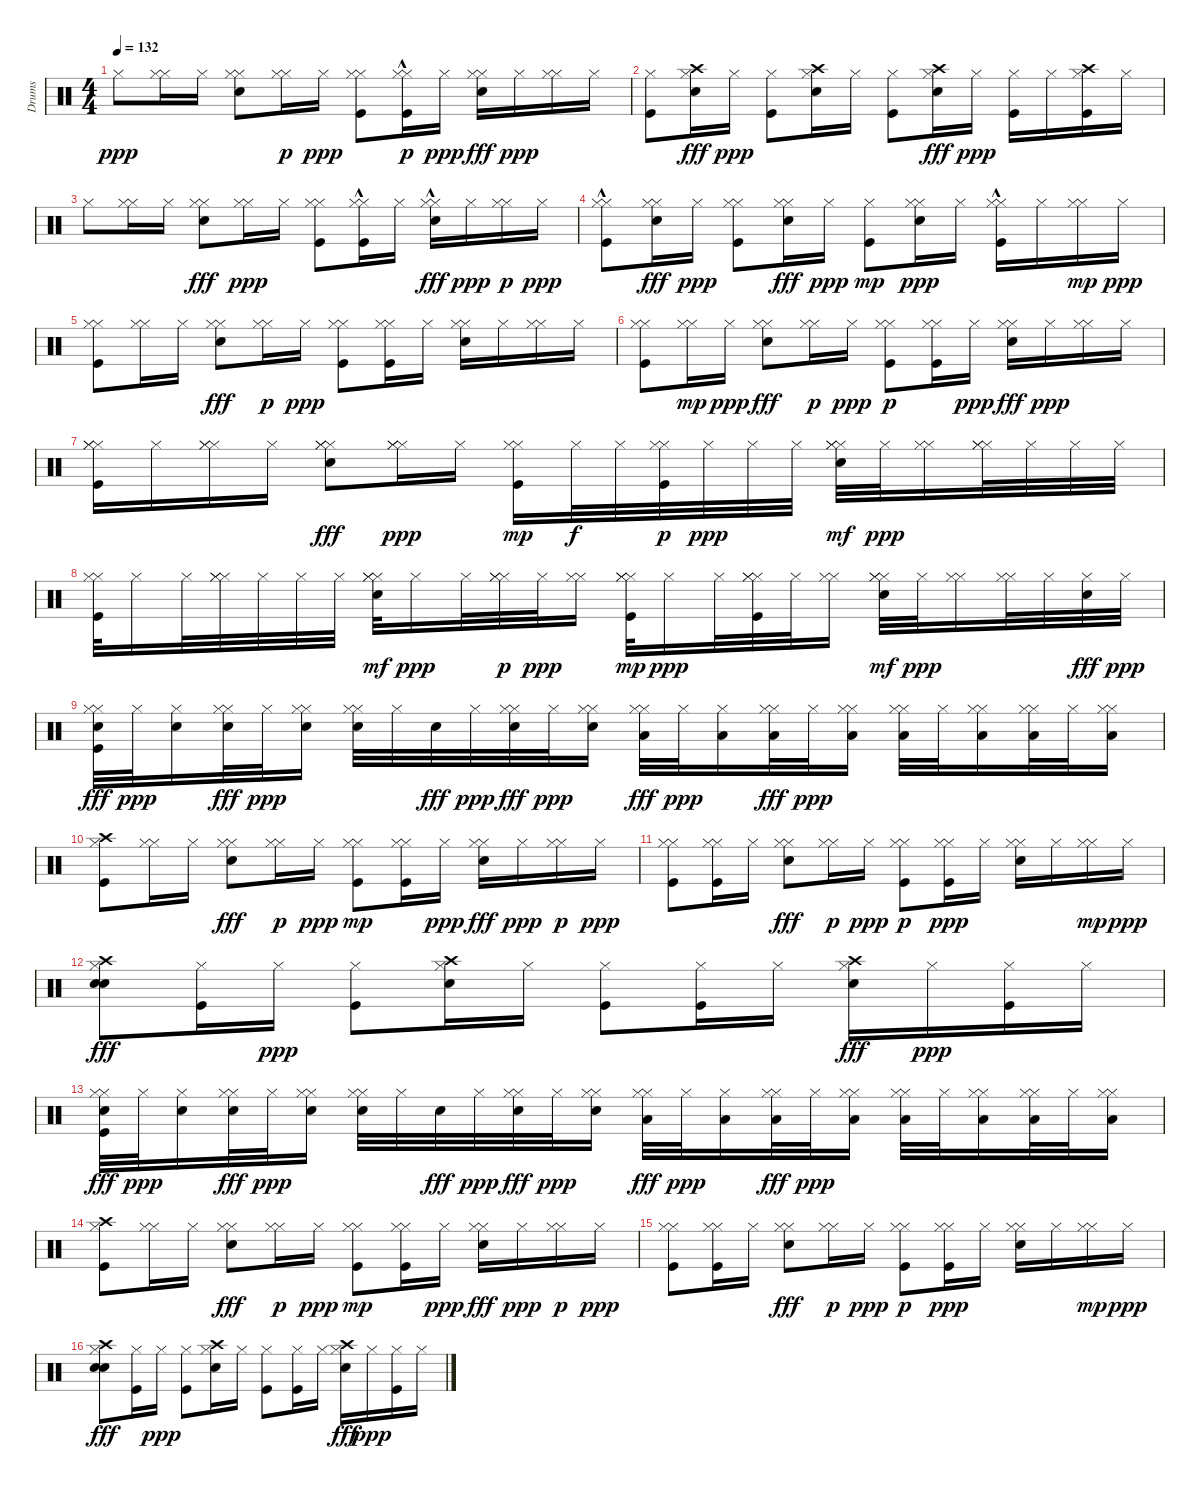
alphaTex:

\track ("Drums" "Drums") {instrument percussion}
\staff {score}
\articulation defaults
\ts (4 4)
\tempo 132
\clef neutral
\ks c "Hi-Hat (closed)".8{dy ppp}
("Hi-Hat (closed)" "Hi-Hat (closed)").16 "Hi-Hat (closed)".16 ("Hi-Hat (closed)" "Snare (hit) 2" "Hi-Hat (closed)").8 ("Hi-Hat (closed)" "Hi-Hat (closed)").16{dy p} "Hi-Hat (closed)".16{dy ppp} ("Kick (hit)" "Hi-Hat (closed)" "Hi-Hat (closed)").8 ("Kick (hit)"{hac} "Hi-Hat (closed)" "Hi-Hat (closed)").16{dy p} "Hi-Hat (closed)".16{dy ppp} ("Hi-Hat (closed)" "Hi-Hat (closed)" "Snare (hit) 2").16{dy fff} "Hi-Hat (closed)".16{dy ppp} ("Hi-Hat (closed)" "Hi-Hat (closed)").16 "Hi-Hat (closed)".16 |
("Kick (hit)" "Hi-Hat (closed)").8 ("Crash high (hit)" "Hi-Hat (closed)" "Snare (hit) 2").16{dy fff} "Hi-Hat (closed)".16{dy ppp} ("Kick (hit)" "Hi-Hat (closed)").8 ("Crash high (hit)" "Snare (hit) 2" "Hi-Hat (closed)").16 "Hi-Hat (closed)".16 ("Kick (hit)" "Hi-Hat (closed)").8 ("Crash high (hit)" "Hi-Hat (closed)" "Snare (hit) 2").16{dy fff} "Hi-Hat (closed)".16{dy ppp} ("Kick (hit)" "Hi-Hat (closed)").16 "Hi-Hat (closed)".16 ("Kick (hit)" "Crash high (hit)" "Hi-Hat (closed)").16 "Hi-Hat (closed)".16 |
"Hi-Hat (closed)".8 ("Hi-Hat (closed)" "Hi-Hat (closed)").16 "Hi-Hat (closed)".16 ("Hi-Hat (closed)" "Hi-Hat (closed)" "Snare (hit) 2").8{dy fff} ("Hi-Hat (closed)" "Hi-Hat (closed)").16{dy ppp} "Hi-Hat (closed)".16 ("Kick (hit)" "Hi-Hat (closed)" "Hi-Hat (closed)").8 ("Kick (hit)"{hac} "Hi-Hat (closed)" "Hi-Hat (closed)").16 "Hi-Hat (closed)".16 ("Hi-Hat (closed)" "Hi-Hat (closed)" "Snare (hit) 2"{hac}).16{dy fff} "Hi-Hat (closed)".16{dy ppp} ("Hi-Hat (closed)" "Hi-Hat (closed)").16{dy p} "Hi-Hat (closed)".16{dy ppp} |
("Kick (hit)"{hac} "Hi-Hat (closed)" "Hi-Hat (closed)").8 ("Hi-Hat (closed)" "Hi-Hat (closed)" "Snare (hit) 2").16{dy fff} "Hi-Hat (closed)".16{dy ppp} ("Kick (hit)" "Hi-Hat (closed)" "Hi-Hat (closed)").8 ("Hi-Hat (closed)" "Hi-Hat (closed)" "Snare (hit) 2").16{dy fff} "Hi-Hat (closed)".16{dy ppp} ("Kick (hit)" "Hi-Hat (closed)").8{dy mp} ("Snare (hit) 2" "Hi-Hat (closed)" "Hi-Hat (closed)").16{dy ppp} "Hi-Hat (closed)".16 ("Hi-Hat (closed)" "Kick (hit)"{hac} "Hi-Hat (closed)").16 "Hi-Hat (closed)".16 ("Hi-Hat (closed)" "Hi-Hat (closed)").16{dy mp} "Hi-Hat (closed)".16{dy ppp} |
("Kick (hit)" "Hi-Hat (closed)" "Hi-Hat (closed)").8 ("Hi-Hat (closed)" "Hi-Hat (closed)").16 "Hi-Hat (closed)".16 ("Hi-Hat (closed)" "Hi-Hat (closed)" "Snare (hit) 2").8{dy fff} ("Hi-Hat (closed)" "Hi-Hat (closed)").16{dy p} "Hi-Hat (closed)".16{dy ppp} ("Kick (hit)" "Hi-Hat (closed)" "Hi-Hat (closed)").8 ("Kick (hit)" "Hi-Hat (closed)" "Hi-Hat (closed)").16 "Hi-Hat (closed)".16 ("Hi-Hat (closed)" "Snare (hit) 2" "Hi-Hat (closed)").16 "Hi-Hat (closed)".16 ("Hi-Hat (closed)" "Hi-Hat (closed)").16 "Hi-Hat (closed)".16 |
("Kick (hit)" "Hi-Hat (closed)" "Hi-Hat (closed)").8 ("Hi-Hat (closed)" "Hi-Hat (closed)").16{dy mp} "Hi-Hat (closed)".16{dy ppp} ("Hi-Hat (closed)" "Hi-Hat (closed)" "Snare (hit) 2").8{dy fff} ("Hi-Hat (closed)" "Hi-Hat (closed)").16{dy p} "Hi-Hat (closed)".16{dy ppp} ("Kick (hit)" "Hi-Hat (closed)" "Hi-Hat (closed)").8{dy p} ("Kick (hit)" "Hi-Hat (closed)" "Hi-Hat (closed)").16 "Hi-Hat (closed)".16{dy ppp} ("Hi-Hat (closed)" "Hi-Hat (closed)" "Snare (hit) 2").16{dy fff} "Hi-Hat (closed)".16{dy ppp} ("Hi-Hat (closed)" "Hi-Hat (closed)").16 "Hi-Hat (closed)".16 |
("Kick (hit)" "Hi-Hat (closed)" "Hi-Hat (closed)" "Hi-Hat (closed)").16 "Hi-Hat (closed)".16 ("Hi-Hat (closed)" "Hi-Hat (closed)" "Hi-Hat (closed)").16 "Hi-Hat (closed)".16 ("Hi-Hat (closed)" "Hi-Hat (closed)" "Hi-Hat (closed)" "Snare (hit) 2").8{dy fff} ("Hi-Hat (closed)" "Hi-Hat (closed)" "Hi-Hat (closed)").16{dy ppp} "Hi-Hat (closed)".16 ("Kick (hit)" "Hi-Hat (closed)" "Hi-Hat (closed)").16{dy mp} "Hi-Hat (closed)".32{dy f} "Hi-Hat (closed)".32 ("Kick (hit)" "Hi-Hat (closed)" "Hi-Hat (closed)").32{dy p} "Hi-Hat (closed)".32{dy ppp} "Hi-Hat (closed)".32 "Hi-Hat (closed)".32 ("Hi-Hat (closed)" "Snare (hit) 2" "Hi-Hat (closed)" "Hi-Hat (closed)").32{dy mf} "Hi-Hat (closed)".32{dy ppp} ("Hi-Hat (closed)" "Hi-Hat (closed)").16 ("Hi-Hat (closed)" "Hi-Hat (closed)" "Hi-Hat (closed)").32 "Hi-Hat (closed)".32 "Hi-Hat (closed)".32 "Hi-Hat (closed)".32 |
("Kick (hit)" "Hi-Hat (closed)" "Hi-Hat (closed)").32 "Hi-Hat (closed)".16 "Hi-Hat (closed)".32 ("Hi-Hat (closed)" "Hi-Hat (closed)" "Hi-Hat (closed)").32 "Hi-Hat (closed)".32 "Hi-Hat (closed)".32 "Hi-Hat (closed)".32 ("Hi-Hat (closed)" "Snare (hit) 2" "Hi-Hat (closed)" "Hi-Hat (closed)").32{dy mf} "Hi-Hat (closed)".16{dy ppp} "Hi-Hat (closed)".32 ("Hi-Hat (closed)" "Hi-Hat (closed)" "Hi-Hat (closed)").32{dy p} "Hi-Hat (closed)".32{dy ppp} ("Hi-Hat (closed)" "Hi-Hat (closed)").16 ("Kick (hit)" "Hi-Hat (closed)" "Hi-Hat (closed)" "Hi-Hat (closed)").32{dy mp} "Hi-Hat (closed)".16{dy ppp} "Hi-Hat (closed)".32 ("Kick (hit)" "Hi-Hat (closed)" "Hi-Hat (closed)" "Hi-Hat (closed)").32 "Hi-Hat (closed)".32 ("Hi-Hat (closed)" "Hi-Hat (closed)").16 ("Hi-Hat (closed)" "Hi-Hat (closed)" "Snare (hit) 2" "Hi-Hat (closed)").32{dy mf} "Hi-Hat (closed)".32{dy ppp} ("Hi-Hat (closed)" "Hi-Hat (closed)").16 ("Hi-Hat (closed)" "Hi-Hat (closed)").32 "Hi-Hat (closed)".32 ("Hi-Hat (closed)" "Snare (hit) 2").32{dy fff} "Hi-Hat (closed)".32{dy ppp} |
("Kick (hit)" "Hi-Hat (closed)" "Hi-Hat (closed)" "Snare (hit) 2").32{dy fff} "Hi-Hat (closed)".32{dy ppp} ("Snare (hit) 2" "Hi-Hat (closed)").16 ("Hi-Hat (closed)" "Hi-Hat (closed)" "Snare (hit) 2").32{dy fff} "Hi-Hat (closed)".32{dy ppp} ("Hi-Hat (closed)" "Snare (hit) 2" "Hi-Hat (closed)").16 ("Hi-Hat (closed)" "Snare (hit) 2" "Hi-Hat (closed)").32 "Hi-Hat (closed)".32 "Snare (hit) 2".32{dy fff} "Hi-Hat (closed)".32{dy ppp} ("Hi-Hat (closed)" "Hi-Hat (closed)" "Snare (hit) 2").32{dy fff} "Hi-Hat (closed)".32{dy ppp} ("Hi-Hat (closed)" "Snare (hit) 2" "Hi-Hat (closed)").16 ("Hi-Hat (closed)" "Hi-Hat (closed)" "Low Tom (hit)").32{dy fff} "Hi-Hat (closed)".32{dy ppp} ("Low Tom (hit)" "Hi-Hat (closed)").16 ("Hi-Hat (closed)" "Hi-Hat (closed)" "Low Tom (hit)").32{dy fff} "Hi-Hat (closed)".32{dy ppp} ("Low Tom (hit)" "Hi-Hat (closed)" "Hi-Hat (closed)").16 ("Hi-Hat (closed)" "Low Floor Tom (hit)" "Hi-Hat (closed)").32 "Hi-Hat (closed)".32 ("Hi-Hat (closed)" "Low Floor Tom (hit)" "Hi-Hat (closed)").16 ("Hi-Hat (closed)" "Low Floor Tom (hit)" "Hi-Hat (closed)").32 "Hi-Hat (closed)".32 ("Low Floor Tom (hit)" "Hi-Hat (closed)" "Hi-Hat (closed)").16 |
("Kick (hit)" "Crash high (hit)" "Hi-Hat (closed)").8 ("Hi-Hat (closed)" "Hi-Hat (closed)").16 "Hi-Hat (closed)".16 ("Hi-Hat (closed)" "Hi-Hat (closed)" "Snare (hit) 2").8{dy fff} ("Hi-Hat (closed)" "Hi-Hat (closed)").16{dy p} "Hi-Hat (closed)".16{dy ppp} ("Kick (hit)" "Hi-Hat (closed)" "Hi-Hat (closed)").8{dy mp} ("Hi-Hat (closed)" "Kick (hit)" "Hi-Hat (closed)").16 "Hi-Hat (closed)".16{dy ppp} ("Hi-Hat (closed)" "Hi-Hat (closed)" "Snare (hit) 2").16{dy fff} "Hi-Hat (closed)".16{dy ppp} ("Hi-Hat (closed)" "Hi-Hat (closed)").16{dy p} "Hi-Hat (closed)".16{dy ppp} |
("Kick (hit)" "Hi-Hat (closed)" "Hi-Hat (closed)").8 ("Kick (hit)" "Hi-Hat (closed)" "Hi-Hat (closed)").16 "Hi-Hat (closed)".16 ("Hi-Hat (closed)" "Hi-Hat (closed)" "Snare (hit) 2").8{dy fff} ("Hi-Hat (closed)" "Hi-Hat (closed)").16{dy p} "Hi-Hat (closed)".16{dy ppp} ("Kick (hit)" "Hi-Hat (closed)" "Hi-Hat (closed)").8{dy p} ("Kick (hit)" "Hi-Hat (closed)" "Hi-Hat (closed)").16{dy ppp} "Hi-Hat (closed)".16 ("Hi-Hat (closed)" "Snare (hit) 2" "Hi-Hat (closed)").16 "Hi-Hat (closed)".16 ("Hi-Hat (closed)" "Hi-Hat (closed)").16{dy mp} "Hi-Hat (closed)".16{dy ppp} |
("Snare (hit) 2" "Crash high (hit)" "Hi-Hat (closed)" "Snare (hit) 2").8{dy fff} ("Hi-Hat (closed)" "Kick (hit)").16 "Hi-Hat (closed)".16{dy ppp} ("Kick (hit)" "Hi-Hat (closed)").8 ("Crash high (hit)" "Snare (hit) 2" "Hi-Hat (closed)").16 "Hi-Hat (closed)".16 ("Kick (hit)" "Hi-Hat (closed)").8 ("Kick (hit)" "Hi-Hat (closed)").16 "Hi-Hat (closed)".16 ("Hi-Hat (closed)" "Crash high (hit)" "Snare (hit) 2").16{dy fff} "Hi-Hat (closed)".16{dy ppp} ("Kick (hit)" "Hi-Hat (closed)").16 "Hi-Hat (closed)".16 |
("Kick (hit)" "Hi-Hat (closed)" "Hi-Hat (closed)" "Snare (hit) 2").32{dy fff} "Hi-Hat (closed)".32{dy ppp} ("Snare (hit) 2" "Hi-Hat (closed)").16 ("Hi-Hat (closed)" "Hi-Hat (closed)" "Snare (hit) 2").32{dy fff} "Hi-Hat (closed)".32{dy ppp} ("Hi-Hat (closed)" "Snare (hit) 2" "Hi-Hat (closed)").16 ("Hi-Hat (closed)" "Snare (hit) 2" "Hi-Hat (closed)").32 "Hi-Hat (closed)".32 "Snare (hit) 2".32{dy fff} "Hi-Hat (closed)".32{dy ppp} ("Hi-Hat (closed)" "Hi-Hat (closed)" "Snare (hit) 2").32{dy fff} "Hi-Hat (closed)".32{dy ppp} ("Hi-Hat (closed)" "Snare (hit) 2" "Hi-Hat (closed)").16 ("Hi-Hat (closed)" "Hi-Hat (closed)" "Low Tom (hit)").32{dy fff} "Hi-Hat (closed)".32{dy ppp} ("Low Tom (hit)" "Hi-Hat (closed)").16 ("Hi-Hat (closed)" "Hi-Hat (closed)" "Low Tom (hit)").32{dy fff} "Hi-Hat (closed)".32{dy ppp} ("Low Tom (hit)" "Hi-Hat (closed)" "Hi-Hat (closed)").16 ("Hi-Hat (closed)" "Low Floor Tom (hit)" "Hi-Hat (closed)").32 "Hi-Hat (closed)".32 ("Hi-Hat (closed)" "Low Floor Tom (hit)" "Hi-Hat (closed)").16 ("Hi-Hat (closed)" "Low Floor Tom (hit)" "Hi-Hat (closed)").32 "Hi-Hat (closed)".32 ("Low Floor Tom (hit)" "Hi-Hat (closed)" "Hi-Hat (closed)").16 |
("Kick (hit)" "Crash high (hit)" "Hi-Hat (closed)").8 ("Hi-Hat (closed)" "Hi-Hat (closed)").16 "Hi-Hat (closed)".16 ("Hi-Hat (closed)" "Hi-Hat (closed)" "Snare (hit) 2").8{dy fff} ("Hi-Hat (closed)" "Hi-Hat (closed)").16{dy p} "Hi-Hat (closed)".16{dy ppp} ("Kick (hit)" "Hi-Hat (closed)" "Hi-Hat (closed)").8{dy mp} ("Hi-Hat (closed)" "Kick (hit)" "Hi-Hat (closed)").16 "Hi-Hat (closed)".16{dy ppp} ("Hi-Hat (closed)" "Hi-Hat (closed)" "Snare (hit) 2").16{dy fff} "Hi-Hat (closed)".16{dy ppp} ("Hi-Hat (closed)" "Hi-Hat (closed)").16{dy p} "Hi-Hat (closed)".16{dy ppp} |
("Kick (hit)" "Hi-Hat (closed)" "Hi-Hat (closed)").8 ("Kick (hit)" "Hi-Hat (closed)" "Hi-Hat (closed)").16 "Hi-Hat (closed)".16 ("Hi-Hat (closed)" "Hi-Hat (closed)" "Snare (hit) 2").8{dy fff} ("Hi-Hat (closed)" "Hi-Hat (closed)").16{dy p} "Hi-Hat (closed)".16{dy ppp} ("Kick (hit)" "Hi-Hat (closed)" "Hi-Hat (closed)").8{dy p} ("Kick (hit)" "Hi-Hat (closed)" "Hi-Hat (closed)").16{dy ppp} "Hi-Hat (closed)".16 ("Hi-Hat (closed)" "Snare (hit) 2" "Hi-Hat (closed)").16 "Hi-Hat (closed)".16 ("Hi-Hat (closed)" "Hi-Hat (closed)").16{dy mp} "Hi-Hat (closed)".16{dy ppp} |
("Snare (hit) 2" "Crash high (hit)" "Hi-Hat (closed)" "Snare (hit) 2").8{dy fff} ("Hi-Hat (closed)" "Kick (hit)").16 "Hi-Hat (closed)".16{dy ppp} ("Kick (hit)" "Hi-Hat (closed)").8 ("Crash high (hit)" "Snare (hit) 2" "Hi-Hat (closed)").16 "Hi-Hat (closed)".16 ("Kick (hit)" "Hi-Hat (closed)").8 ("Kick (hit)" "Hi-Hat (closed)").16 "Hi-Hat (closed)".16 ("Hi-Hat (closed)" "Crash high (hit)" "Snare (hit) 2").16{dy fff} "Hi-Hat (closed)".16{dy ppp} ("Kick (hit)" "Hi-Hat (closed)").16 "Hi-Hat (closed)".16
